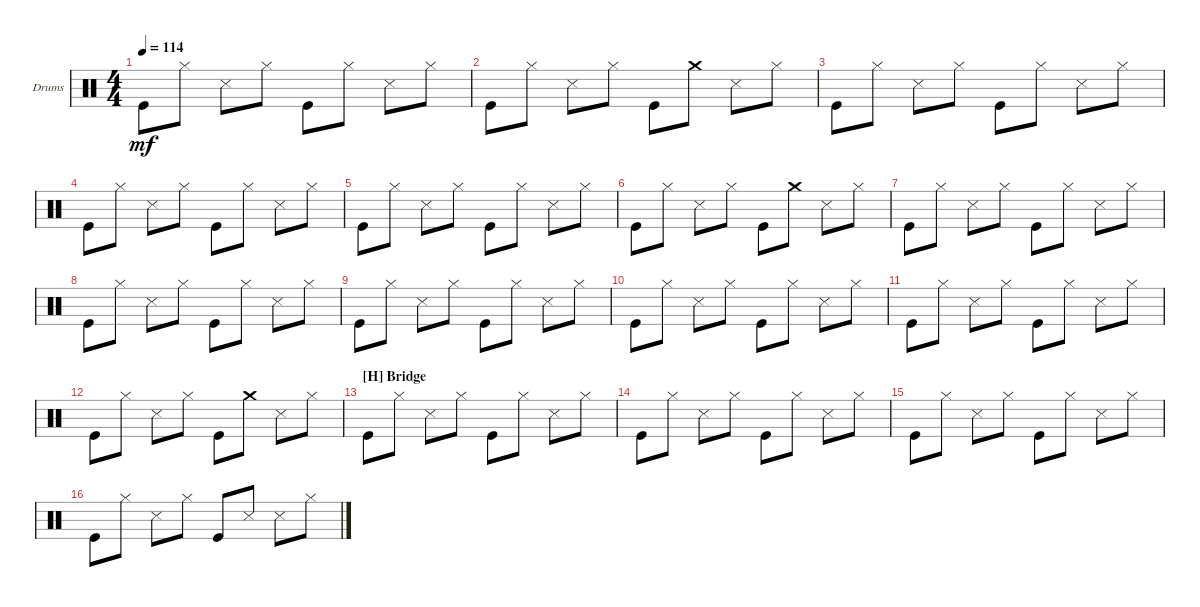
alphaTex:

\defaultSystemsLayout 4
\bracketExtendMode groupsimilarinstruments
\firstSystemTrackNameOrientation horizontal
\otherSystemsTrackNameOrientation horizontal
\track ("Drumkit" "Drums") {instrument percussion}
\staff {score}
\articulation defaults
\ts (4 4)
\tempo 114
\clef neutral
\ks c "Kick (hit)".8{dy mf} "Hi-Hat (closed)".8 "Snare (side stick) 3".8 "Hi-Hat (closed)".8 "Kick (hit)".8 "Hi-Hat (closed)".8 "Snare (side stick) 3".8 "Hi-Hat (closed)".8
|
"Kick (hit)".8 "Hi-Hat (closed)".8 "Snare (side stick) 3".8 "Hi-Hat (closed)".8 "Kick (hit)".8 "Crash medium (hit)".8 "Snare (side stick) 3".8 "Hi-Hat (closed)".8 |
"Kick (hit)".8 "Hi-Hat (closed)".8 "Snare (side stick) 3".8 "Hi-Hat (closed)".8 "Kick (hit)".8 "Hi-Hat (closed)".8 "Snare (side stick) 3".8 "Hi-Hat (closed)".8 |
"Kick (hit)".8 "Hi-Hat (closed)".8 "Snare (side stick) 3".8 "Hi-Hat (closed)".8 "Kick (hit)".8 "Hi-Hat (closed)".8 "Snare (side stick) 3".8 "Hi-Hat (closed)".8 |
"Kick (hit)".8 "Hi-Hat (closed)".8 "Snare (side stick) 3".8 "Hi-Hat (closed)".8 "Kick (hit)".8 "Hi-Hat (closed)".8 "Snare (side stick) 3".8 "Hi-Hat (closed)".8 |
"Kick (hit)".8 "Hi-Hat (closed)".8 "Snare (side stick) 3".8 "Hi-Hat (closed)".8 "Kick (hit)".8 "Crash medium (hit)".8 "Snare (side stick) 3".8 "Hi-Hat (closed)".8 |
"Kick (hit)".8 "Hi-Hat (closed)".8 "Snare (side stick) 3".8 "Hi-Hat (closed)".8 "Kick (hit)".8 "Hi-Hat (closed)".8 "Snare (side stick) 3".8 "Hi-Hat (closed)".8 |
"Kick (hit)".8 "Hi-Hat (closed)".8 "Snare (side stick) 3".8 "Hi-Hat (closed)".8 "Kick (hit)".8 "Hi-Hat (closed)".8 "Snare (side stick) 3".8 "Hi-Hat (closed)".8 |
"Kick (hit)".8 "Hi-Hat (closed)".8 "Snare (side stick) 3".8 "Hi-Hat (closed)".8 "Kick (hit)".8 "Hi-Hat (closed)".8 "Snare (side stick) 3".8 "Hi-Hat (closed)".8 |
"Kick (hit)".8 "Hi-Hat (closed)".8 "Snare (side stick) 3".8 "Hi-Hat (closed)".8 "Kick (hit)".8 "Hi-Hat (closed)".8 "Snare (side stick) 3".8 "Hi-Hat (closed)".8 |
"Kick (hit)".8 "Hi-Hat (closed)".8 "Snare (side stick) 3".8 "Hi-Hat (closed)".8 "Kick (hit)".8 "Hi-Hat (closed)".8 "Snare (side stick) 3".8 "Hi-Hat (closed)".8 |
"Kick (hit)".8 "Hi-Hat (closed)".8 "Snare (side stick) 3".8 "Hi-Hat (closed)".8 "Kick (hit)".8 "Crash medium (hit)".8 "Snare (side stick) 3".8 "Hi-Hat (closed)".8 |
\section ("H" "Bridge")
"Kick (hit)".8 "Hi-Hat (closed)".8 "Snare (side stick) 3".8 "Hi-Hat (closed)".8 "Kick (hit)".8 "Hi-Hat (closed)".8 "Snare (side stick) 3".8 "Hi-Hat (closed)".8 |
"Kick (hit)".8 "Hi-Hat (closed)".8 "Snare (side stick) 3".8 "Hi-Hat (closed)".8 "Kick (hit)".8 "Hi-Hat (closed)".8 "Snare (side stick) 3".8 "Hi-Hat (closed)".8 |
"Kick (hit)".8 "Hi-Hat (closed)".8 "Snare (side stick) 3".8 "Hi-Hat (closed)".8 "Kick (hit)".8 "Hi-Hat (closed)".8 "Snare (side stick) 3".8 "Hi-Hat (closed)".8 |
"Kick (hit)".8 "Hi-Hat (closed)".8 "Snare (side stick) 3".8 "Hi-Hat (closed)".8 "Kick (hit)".8 "Snare (side stick) 3".8 "Snare (side stick) 3".8 "Hi-Hat (closed)".8
